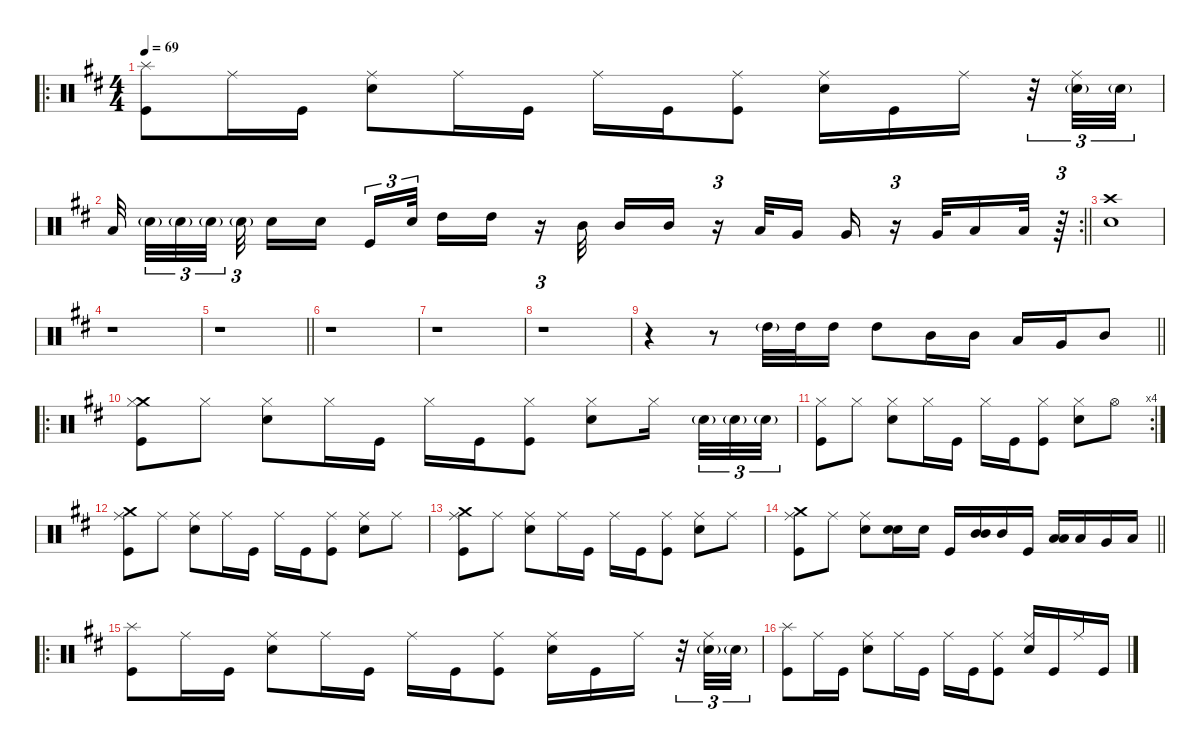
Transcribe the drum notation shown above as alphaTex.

\defaultSystemsLayout 4
\hideDynamics
\bracketExtendMode nobrackets
\singleTrackTrackNamePolicy hidden
\multiTrackTrackNamePolicy hidden
\firstSystemTrackNameMode fullname
\firstSystemTrackNameOrientation horizontal
\otherSystemsTrackNameOrientation horizontal
\track ("Percussion" "drm.") {instrument percussion}
\staff {score}
\articulation defaults
\ro
\ts (4 4)
\tempo 69
\clef neutral
\ks bminor
("Splash (hit)"{acc forcenatural} "Kick (hit)"{acc forcenatural}).8{dy f beam Down} "Ride (middle)"{acc forcenatural}.16{beam Down} "Kick (hit)"{acc forcenatural}.16{beam Down} ("Snare (hit) 2"{acc forcenatural} "Ride (middle)"{acc forcenatural}).8{beam Down} "Ride (middle)"{acc forcenatural}.16{beam Down} "Kick (hit)"{acc forcenatural}.16{beam Down} "Ride (middle)"{acc forcenatural}.16{beam Down} "Kick (hit)"{acc forcenatural}.16{beam Down} ("Kick (hit)"{acc forcenatural} "Ride (middle)"{acc forcenatural}).8{beam Down} ("Snare (hit) 2"{acc forcenatural} "Ride (middle)"{acc forcenatural}).16{beam Down} "Kick (hit)"{acc forcenatural}.16{beam Down} "Ride (middle)"{acc forcenatural}.16{beam Down} r.32{tu (3 2) beam Down} ("Snare (hit) 2"{g acc forcenatural} "Ride (middle)"{acc forcenatural}).32{tu (3 2) beam Down} "Snare (hit) 2"{g acc forcenatural}.32{tu (3 2) dy ff beam Down} |
\rc 2
\barLineRight lightlight "Low Tom (hit)"{acc forcenatural}.32{dy fff beam Up} "Snare (hit) 2"{g acc forcenatural}.32{tu (3 2) dy ff beam Down} "Snare (hit) 2"{g acc forcenatural}.32{tu (3 2) beam Down} "Snare (hit) 2"{g acc forcenatural}.32{tu (3 2) beam Down} "Snare (hit) 2"{g acc forcenatural}.32{tu (3 2) beam Down} "Snare (hit) 2"{acc forcenatural}.16{dy fff beam Down} "Snare (hit) 2"{acc forcenatural}.16{beam Down} "Kick (hit)"{acc forcenatural}.16{tu (3 2) dy f beam Up} "Snare (hit) 2"{acc forcenatural}.32{tu (3 2) beam Up} "High Tom (hit)"{acc forcenatural}.16{dy fff beam Down} "High Tom (hit)"{acc forcenatural}.16{beam Down}
r.16{tu (3 2) beam Down} "Mid Tom (hit)"{acc forcenatural}.32{dy f beam Down} "Mid Tom (hit)"{acc forcenatural}.16{beam Up} "Mid Tom (hit)"{acc forcenatural}.16{beam Up} r.16{tu (3 2) beam Up} "Low Tom (hit)"{acc forcenatural}.32{beam Up} "Very Low Tom (hit)"{acc forcenatural}.16{beam Up} "Very Low Tom (hit)"{acc forcenatural}.16{beam Up} r.16{tu (3 2) beam Up} "Very Low Tom (hit)"{acc forcenatural}.32{beam Up} "Low Floor Tom (hit)"{acc forcenatural}.16{beam Up} "Low Floor Tom (hit)"{acc forcenatural}.32{beam Up} r.64{tu (3 2) beam Up} |
("Crash high (hit)"{acc forcenatural} "Snare (hit) 2"{acc forcenatural}).1{beam Down} |
r.1{beam Down} |
\barLineRight lightlight
r.1{beam Down} |
r.1{beam Down} |
r.1{beam Down} |
r.1{beam Down} |
\barLineRight lightlight
r.4{beam Down} r.8{beam Down} "High Tom (hit)"{g acc forcenatural}.32{dy mf beam Down} "High Tom (hit)"{acc forcenatural}.32{dy f beam Down} "High Tom (hit)"{acc forcenatural}.16{beam Down} "High Tom (hit)"{acc forcenatural}.8{beam Down} "Mid Tom (hit)"{acc forcenatural}.16{beam Down} "Mid Tom (hit)"{acc forcenatural}.16{beam Down} "Low Tom (hit)"{acc forcenatural}.16{beam Up} "Very Low Tom (hit)"{acc forcenatural}.16{beam Up} "Mid Tom (hit)"{acc forcenatural}.8{beam Up} |
\ro
("Crash medium (hit)"{acc forcenatural} "Kick (hit)"{acc forcenatural} "Hi-Hat (closed)"{acc forcenatural}).8{beam Down} "Hi-Hat (closed)"{acc forcenatural}.8{beam Down} ("Snare (hit) 2"{acc forcenatural} "Hi-Hat (closed)"{acc forcenatural}).8{beam Down} "Hi-Hat (closed)"{acc forcenatural}.16{beam Down} "Kick (hit)"{acc forcenatural}.16{beam Down} "Hi-Hat (closed)"{acc forcenatural}.16{beam Down} "Kick (hit)"{acc forcenatural}.16{beam Down} ("Kick (hit)"{acc forcenatural} "Hi-Hat (closed)"{acc forcenatural}).8{beam Down} ("Snare (hit) 2"{acc forcenatural} "Hi-Hat (closed)"{acc forcenatural}).8{beam Down} "Hi-Hat (closed)"{acc forcenatural}.16{beam Down} "Snare (hit) 2"{g acc forcenatural}.32{tu (3 2) dy mf beam Down} "Snare (hit) 2"{g acc forcenatural}.32{tu (3 2) beam Down} "Snare (hit) 2"{g acc forcenatural}.32{tu (3 2) beam Down} |
\rc 4
("Kick (hit)"{acc forcenatural} "Hi-Hat (closed)"{acc forcenatural}).8{dy f beam Down} "Hi-Hat (closed)"{acc forcenatural}.8{beam Down} ("Snare (hit) 2"{acc forcenatural} "Hi-Hat (closed)"{acc forcenatural}).8{beam Down} "Hi-Hat (closed)"{acc forcenatural}.16{beam Down} "Kick (hit)"{acc forcenatural}.16{beam Down} "Hi-Hat (closed)"{acc forcenatural}.16{beam Down} "Kick (hit)"{acc forcenatural}.16{beam Down} ("Kick (hit)"{acc forcenatural} "Hi-Hat (closed)"{acc forcenatural}).8{beam Down} ("Snare (hit) 2"{acc forcenatural} "Hi-Hat (closed)"{acc forcenatural}).8{beam Down} "Hi-Hat (open)"{acc forcenatural}.8{beam Down} |
("Crash medium (hit)"{acc forcenatural} "Kick (hit)"{acc forcenatural} "Ride (middle)"{acc forcenatural}).8{beam Down} "Ride (middle)"{acc forcenatural}.8{beam Down} ("Snare (hit) 2"{acc forcenatural} "Ride (middle)"{acc forcenatural}).8{beam Down} "Ride (middle)"{acc forcenatural}.16{beam Down} "Kick (hit)"{acc forcenatural}.16{beam Down} "Ride (middle)"{acc forcenatural}.16{beam Down} "Kick (hit)"{acc forcenatural}.16{beam Down} ("Kick (hit)"{acc forcenatural} "Ride (middle)"{acc forcenatural}).8{beam Down} ("Snare (hit) 2"{acc forcenatural} "Ride (middle)"{acc forcenatural}).8{beam Down} "Ride (middle)"{acc forcenatural}.8{beam Down} |
("Crash medium (hit)"{acc forcenatural} "Kick (hit)"{acc forcenatural} "Ride (middle)"{acc forcenatural}).8{beam Down} "Ride (middle)"{acc forcenatural}.8{beam Down} ("Snare (hit) 2"{acc forcenatural} "Ride (middle)"{acc forcenatural}).8{beam Down} "Ride (middle)"{acc forcenatural}.16{beam Down} "Kick (hit)"{acc forcenatural}.16{beam Down} "Ride (middle)"{acc forcenatural}.16{beam Down} "Kick (hit)"{acc forcenatural}.16{beam Down} ("Kick (hit)"{acc forcenatural} "Ride (middle)"{acc forcenatural}).8{beam Down} ("Snare (hit) 2"{acc forcenatural} "Ride (middle)"{acc forcenatural}).8{beam Down} "Ride (middle)"{acc forcenatural}.8{beam Down} |
\barLineRight lightlight
("Crash medium (hit)"{acc forcenatural} "Kick (hit)"{acc forcenatural} "Ride (middle)"{acc forcenatural}).8{beam Down} "Ride (middle)"{acc forcenatural}.8{beam Down} ("Snare (hit) 2"{acc forcenatural} "Ride (middle)"{acc forcenatural}).8{beam Down} ("Snare (hit) 2"{acc forcenatural} "Snare (hit) 2"{acc forcenatural}).16{beam Down} "Snare (hit) 2"{acc forcenatural}.16{beam Down} "Kick (hit)"{acc forcenatural}.16{beam Up} ("Mid Tom (hit)"{acc forcenatural} "Mid Tom (hit)"{acc forcenatural}).16{beam Up} "Mid Tom (hit)"{acc forcenatural}.16{beam Up} "Kick (hit)"{acc forcenatural}.16{beam Up} ("Low Floor Tom (hit)"{acc forcenatural} "Low Floor Tom (hit)"{acc forcenatural}).16{beam Up} "Low Floor Tom (hit)"{acc forcenatural}.16{beam Up} "Very Low Tom (hit)"{acc forcenatural}.16{dy fff beam Up} "Low Floor Tom (hit)"{acc forcenatural}.16{dy f beam Up} |
\ro
("Splash (hit)"{acc forcenatural} "Kick (hit)"{acc forcenatural}).8{beam Down} "Ride (middle)"{acc forcenatural}.16{beam Down} "Kick (hit)"{acc forcenatural}.16{beam Down} ("Snare (hit) 2"{acc forcenatural} "Ride (middle)"{acc forcenatural}).8{beam Down} "Ride (middle)"{acc forcenatural}.16{beam Down} "Kick (hit)"{acc forcenatural}.16{beam Down} "Ride (middle)"{acc forcenatural}.16{beam Down} "Kick (hit)"{acc forcenatural}.16{beam Down} ("Kick (hit)"{acc forcenatural} "Ride (middle)"{acc forcenatural}).8{beam Down} ("Snare (hit) 2"{acc forcenatural} "Ride (middle)"{acc forcenatural}).16{beam Down} "Kick (hit)"{acc forcenatural}.16{beam Down} "Ride (middle)"{acc forcenatural}.16{beam Down} r.32{tu (3 2) beam Down} ("Snare (hit) 2"{g acc forcenatural} "Ride (middle)"{acc forcenatural}).32{tu (3 2) beam Down} "Snare (hit) 2"{g acc forcenatural}.32{tu (3 2) dy ff beam Down} |
("Splash (hit)"{acc forcenatural} "Kick (hit)"{acc forcenatural}).8{dy f beam Down} "Ride (middle)"{acc forcenatural}.16{beam Down} "Kick (hit)"{acc forcenatural}.16{beam Down} ("Snare (hit) 2"{acc forcenatural} "Ride (middle)"{acc forcenatural}).8{beam Down} "Ride (middle)"{acc forcenatural}.16{beam Down} "Kick (hit)"{acc forcenatural}.16{beam Down} "Ride (middle)"{acc forcenatural}.16{beam Down} "Kick (hit)"{acc forcenatural}.16{beam Down} ("Kick (hit)"{acc forcenatural} "Ride (middle)"{acc forcenatural}).8{beam Down} ("Snare (hit) 2"{acc forcenatural} "Ride (middle)"{acc forcenatural}).16{beam Up} "Kick (hit)"{acc forcenatural}.16{beam Up} "Ride (middle)"{acc forcenatural}.16{beam Up} "Kick (hit)"{acc forcenatural}.16{beam Up}
